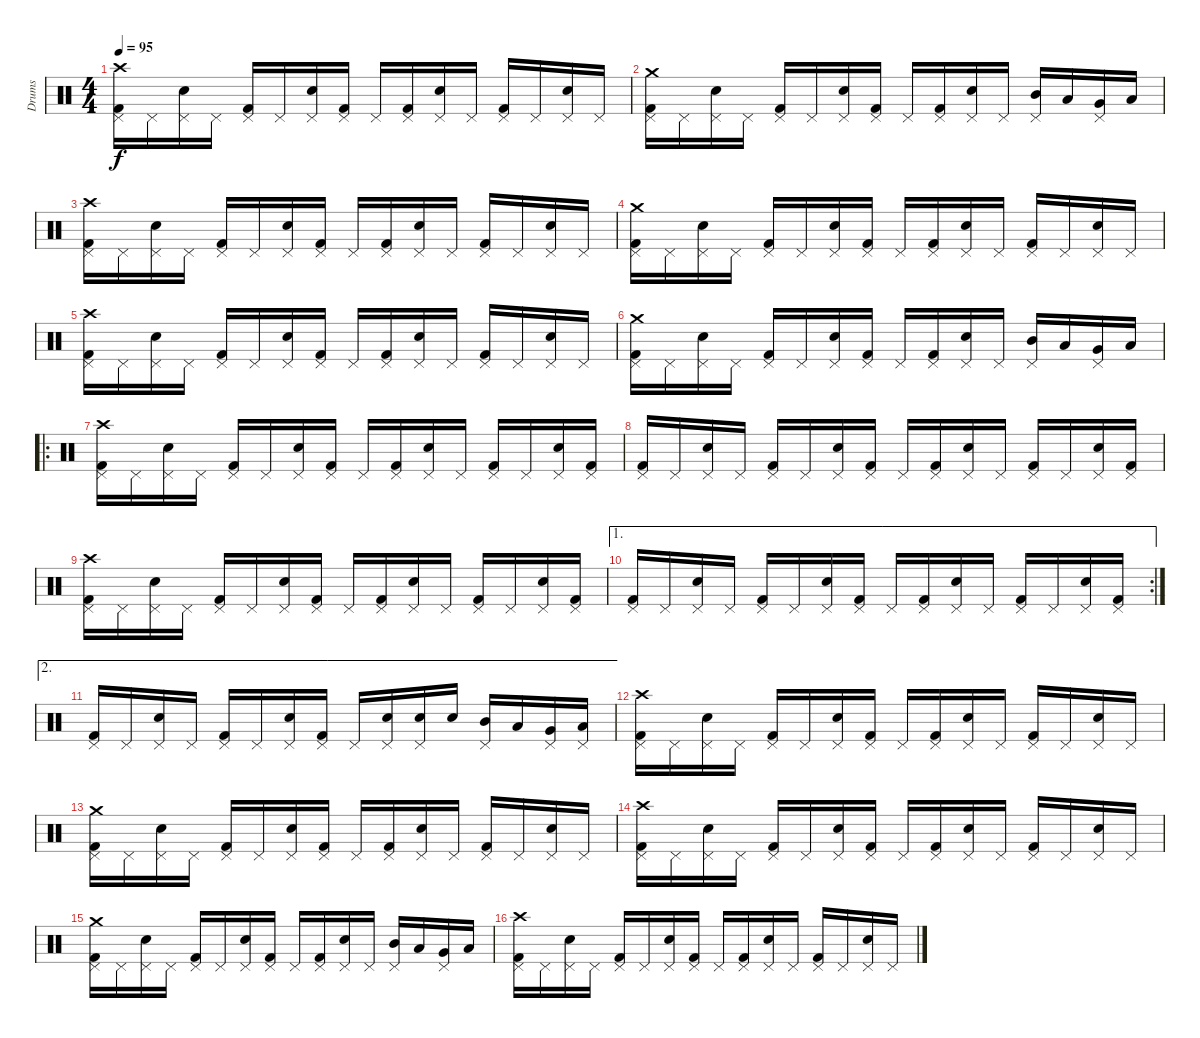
\track ("Drums" "Drums") {instrument percussion}
\staff {score}
\articulation defaults
\ts (4 4)
\tempo 95
\clef neutral
\ks c
("Kick (hit) 2" "Pedal Hi-Hat (hit)" "Crash high (hit)").16{dy f} "Pedal Hi-Hat (hit)".16 ("Snare (hit) 2" "Pedal Hi-Hat (hit)").16 "Pedal Hi-Hat (hit)".16 ("Kick (hit) 2" "Pedal Hi-Hat (hit)").16 "Pedal Hi-Hat (hit)".16 ("Snare (hit) 2" "Pedal Hi-Hat (hit)").16 ("Kick (hit) 2" "Pedal Hi-Hat (hit)").16 "Pedal Hi-Hat (hit)".16 ("Kick (hit) 2" "Pedal Hi-Hat (hit)").16 ("Snare (hit) 2" "Pedal Hi-Hat (hit)").16 "Pedal Hi-Hat (hit)".16 ("Kick (hit) 2" "Pedal Hi-Hat (hit)").16 "Pedal Hi-Hat (hit)".16 ("Snare (hit) 2" "Pedal Hi-Hat (hit)").16 "Pedal Hi-Hat (hit)".16 |
("Kick (hit) 2" "Pedal Hi-Hat (hit)" "Crash medium (hit)").16 "Pedal Hi-Hat (hit)".16 ("Snare (hit) 2" "Pedal Hi-Hat (hit)").16 "Pedal Hi-Hat (hit)".16 ("Kick (hit) 2" "Pedal Hi-Hat (hit)").16 "Pedal Hi-Hat (hit)".16 ("Snare (hit) 2" "Pedal Hi-Hat (hit)").16 ("Kick (hit) 2" "Pedal Hi-Hat (hit)").16 "Pedal Hi-Hat (hit)".16 ("Kick (hit) 2" "Pedal Hi-Hat (hit)").16 ("Snare (hit) 2" "Pedal Hi-Hat (hit)").16 "Pedal Hi-Hat (hit)".16 ("Mid Tom (hit)" "Pedal Hi-Hat (hit)").16 "Low Tom (hit)".16 ("Very Low Tom (hit)" "Pedal Hi-Hat (hit)").16 "Low Floor Tom (hit)".16 |
("Kick (hit) 2" "Pedal Hi-Hat (hit)" "Crash high (hit)").16 "Pedal Hi-Hat (hit)".16 ("Snare (hit) 2" "Pedal Hi-Hat (hit)").16 "Pedal Hi-Hat (hit)".16 ("Kick (hit) 2" "Pedal Hi-Hat (hit)").16 "Pedal Hi-Hat (hit)".16 ("Snare (hit) 2" "Pedal Hi-Hat (hit)").16 ("Kick (hit) 2" "Pedal Hi-Hat (hit)").16 "Pedal Hi-Hat (hit)".16 ("Kick (hit) 2" "Pedal Hi-Hat (hit)").16 ("Snare (hit) 2" "Pedal Hi-Hat (hit)").16 "Pedal Hi-Hat (hit)".16 ("Kick (hit) 2" "Pedal Hi-Hat (hit)").16 "Pedal Hi-Hat (hit)".16 ("Snare (hit) 2" "Pedal Hi-Hat (hit)").16 "Pedal Hi-Hat (hit)".16 |
("Kick (hit) 2" "Pedal Hi-Hat (hit)" "Crash medium (hit)").16 "Pedal Hi-Hat (hit)".16 ("Snare (hit) 2" "Pedal Hi-Hat (hit)").16 "Pedal Hi-Hat (hit)".16 ("Kick (hit) 2" "Pedal Hi-Hat (hit)").16 "Pedal Hi-Hat (hit)".16 ("Snare (hit) 2" "Pedal Hi-Hat (hit)").16 ("Kick (hit) 2" "Pedal Hi-Hat (hit)").16 "Pedal Hi-Hat (hit)".16 ("Kick (hit) 2" "Pedal Hi-Hat (hit)").16 ("Snare (hit) 2" "Pedal Hi-Hat (hit)").16 "Pedal Hi-Hat (hit)".16 ("Kick (hit) 2" "Pedal Hi-Hat (hit)").16 "Pedal Hi-Hat (hit)".16 ("Snare (hit) 2" "Pedal Hi-Hat (hit)").16 "Pedal Hi-Hat (hit)".16 |
("Kick (hit) 2" "Pedal Hi-Hat (hit)" "Crash high (hit)").16 "Pedal Hi-Hat (hit)".16 ("Snare (hit) 2" "Pedal Hi-Hat (hit)").16 "Pedal Hi-Hat (hit)".16 ("Kick (hit) 2" "Pedal Hi-Hat (hit)").16 "Pedal Hi-Hat (hit)".16 ("Snare (hit) 2" "Pedal Hi-Hat (hit)").16 ("Kick (hit) 2" "Pedal Hi-Hat (hit)").16 "Pedal Hi-Hat (hit)".16 ("Kick (hit) 2" "Pedal Hi-Hat (hit)").16 ("Snare (hit) 2" "Pedal Hi-Hat (hit)").16 "Pedal Hi-Hat (hit)".16 ("Kick (hit) 2" "Pedal Hi-Hat (hit)").16 "Pedal Hi-Hat (hit)".16 ("Snare (hit) 2" "Pedal Hi-Hat (hit)").16 "Pedal Hi-Hat (hit)".16 |
("Kick (hit) 2" "Pedal Hi-Hat (hit)" "Crash medium (hit)").16 "Pedal Hi-Hat (hit)".16 ("Snare (hit) 2" "Pedal Hi-Hat (hit)").16 "Pedal Hi-Hat (hit)".16 ("Kick (hit) 2" "Pedal Hi-Hat (hit)").16 "Pedal Hi-Hat (hit)".16 ("Snare (hit) 2" "Pedal Hi-Hat (hit)").16 ("Kick (hit) 2" "Pedal Hi-Hat (hit)").16 "Pedal Hi-Hat (hit)".16 ("Kick (hit) 2" "Pedal Hi-Hat (hit)").16 ("Snare (hit) 2" "Pedal Hi-Hat (hit)").16 "Pedal Hi-Hat (hit)".16 ("Mid Tom (hit)" "Pedal Hi-Hat (hit)").16 "Low Tom (hit)".16 ("Very Low Tom (hit)" "Pedal Hi-Hat (hit)").16 "Low Floor Tom (hit)".16 |
\ro
("Kick (hit) 2" "Pedal Hi-Hat (hit)" "Crash high (hit)").16 "Pedal Hi-Hat (hit)".16 ("Snare (hit) 2" "Pedal Hi-Hat (hit)").16 "Pedal Hi-Hat (hit)".16 ("Kick (hit) 2" "Pedal Hi-Hat (hit)").16 "Pedal Hi-Hat (hit)".16 ("Snare (hit) 2" "Pedal Hi-Hat (hit)").16 ("Kick (hit) 2" "Pedal Hi-Hat (hit)").16 "Pedal Hi-Hat (hit)".16 ("Kick (hit) 2" "Pedal Hi-Hat (hit)").16 ("Snare (hit) 2" "Pedal Hi-Hat (hit)").16 "Pedal Hi-Hat (hit)".16 ("Kick (hit) 2" "Pedal Hi-Hat (hit)").16 "Pedal Hi-Hat (hit)".16 ("Snare (hit) 2" "Pedal Hi-Hat (hit)").16 ("Kick (hit) 2" "Pedal Hi-Hat (hit)").16 |
("Kick (hit) 2" "Pedal Hi-Hat (hit)").16 "Pedal Hi-Hat (hit)".16 ("Snare (hit) 2" "Pedal Hi-Hat (hit)").16 "Pedal Hi-Hat (hit)".16 ("Kick (hit) 2" "Pedal Hi-Hat (hit)").16 "Pedal Hi-Hat (hit)".16 ("Snare (hit) 2" "Pedal Hi-Hat (hit)").16 ("Kick (hit) 2" "Pedal Hi-Hat (hit)").16 "Pedal Hi-Hat (hit)".16 ("Kick (hit) 2" "Pedal Hi-Hat (hit)").16 ("Snare (hit) 2" "Pedal Hi-Hat (hit)").16 "Pedal Hi-Hat (hit)".16 ("Kick (hit) 2" "Pedal Hi-Hat (hit)").16 "Pedal Hi-Hat (hit)".16 ("Snare (hit) 2" "Pedal Hi-Hat (hit)").16 ("Kick (hit) 2" "Pedal Hi-Hat (hit)").16 |
("Kick (hit) 2" "Pedal Hi-Hat (hit)" "Crash high (hit)").16 "Pedal Hi-Hat (hit)".16 ("Snare (hit) 2" "Pedal Hi-Hat (hit)").16 "Pedal Hi-Hat (hit)".16 ("Kick (hit) 2" "Pedal Hi-Hat (hit)").16 "Pedal Hi-Hat (hit)".16 ("Snare (hit) 2" "Pedal Hi-Hat (hit)").16 ("Kick (hit) 2" "Pedal Hi-Hat (hit)").16 "Pedal Hi-Hat (hit)".16 ("Kick (hit) 2" "Pedal Hi-Hat (hit)").16 ("Snare (hit) 2" "Pedal Hi-Hat (hit)").16 "Pedal Hi-Hat (hit)".16 ("Kick (hit) 2" "Pedal Hi-Hat (hit)").16 "Pedal Hi-Hat (hit)".16 ("Snare (hit) 2" "Pedal Hi-Hat (hit)").16 ("Kick (hit) 2" "Pedal Hi-Hat (hit)").16 |
\ae 1
\rc 2
("Kick (hit) 2" "Pedal Hi-Hat (hit)").16 "Pedal Hi-Hat (hit)".16 ("Snare (hit) 2" "Pedal Hi-Hat (hit)").16 "Pedal Hi-Hat (hit)".16 ("Kick (hit) 2" "Pedal Hi-Hat (hit)").16 "Pedal Hi-Hat (hit)".16 ("Snare (hit) 2" "Pedal Hi-Hat (hit)").16 ("Kick (hit) 2" "Pedal Hi-Hat (hit)").16 "Pedal Hi-Hat (hit)".16 ("Kick (hit) 2" "Pedal Hi-Hat (hit)").16 ("Snare (hit) 2" "Pedal Hi-Hat (hit)").16 "Pedal Hi-Hat (hit)".16 ("Kick (hit) 2" "Pedal Hi-Hat (hit)").16 "Pedal Hi-Hat (hit)".16 ("Snare (hit) 2" "Pedal Hi-Hat (hit)").16 ("Kick (hit) 2" "Pedal Hi-Hat (hit)").16 |
\ae 2
("Kick (hit) 2" "Pedal Hi-Hat (hit)").16 "Pedal Hi-Hat (hit)".16 ("Snare (hit) 2" "Pedal Hi-Hat (hit)").16 "Pedal Hi-Hat (hit)".16 ("Kick (hit) 2" "Pedal Hi-Hat (hit)").16 "Pedal Hi-Hat (hit)".16 ("Snare (hit) 2" "Pedal Hi-Hat (hit)").16 ("Kick (hit) 2" "Pedal Hi-Hat (hit)").16 "Pedal Hi-Hat (hit)".16 ("Snare (hit) 2" "Pedal Hi-Hat (hit)").16 ("Snare (hit) 2" "Pedal Hi-Hat (hit)").16 "Snare (hit) 2".16 ("Mid Tom (hit)" "Pedal Hi-Hat (hit)").16 "Low Tom (hit)".16 ("Very Low Tom (hit)" "Pedal Hi-Hat (hit)").16 ("Low Floor Tom (hit)" "Pedal Hi-Hat (hit)").16 |
("Kick (hit) 2" "Pedal Hi-Hat (hit)" "Crash high (hit)").16 "Pedal Hi-Hat (hit)".16 ("Snare (hit) 2" "Pedal Hi-Hat (hit)").16 "Pedal Hi-Hat (hit)".16 ("Kick (hit) 2" "Pedal Hi-Hat (hit)").16 "Pedal Hi-Hat (hit)".16 ("Snare (hit) 2" "Pedal Hi-Hat (hit)").16 ("Kick (hit) 2" "Pedal Hi-Hat (hit)").16 "Pedal Hi-Hat (hit)".16 ("Kick (hit) 2" "Pedal Hi-Hat (hit)").16 ("Snare (hit) 2" "Pedal Hi-Hat (hit)").16 "Pedal Hi-Hat (hit)".16 ("Kick (hit) 2" "Pedal Hi-Hat (hit)").16 "Pedal Hi-Hat (hit)".16 ("Snare (hit) 2" "Pedal Hi-Hat (hit)").16 "Pedal Hi-Hat (hit)".16 |
("Kick (hit) 2" "Pedal Hi-Hat (hit)" "Crash medium (hit)").16 "Pedal Hi-Hat (hit)".16 ("Snare (hit) 2" "Pedal Hi-Hat (hit)").16 "Pedal Hi-Hat (hit)".16 ("Kick (hit) 2" "Pedal Hi-Hat (hit)").16 "Pedal Hi-Hat (hit)".16 ("Snare (hit) 2" "Pedal Hi-Hat (hit)").16 ("Kick (hit) 2" "Pedal Hi-Hat (hit)").16 "Pedal Hi-Hat (hit)".16 ("Kick (hit) 2" "Pedal Hi-Hat (hit)").16 ("Snare (hit) 2" "Pedal Hi-Hat (hit)").16 "Pedal Hi-Hat (hit)".16 ("Kick (hit) 2" "Pedal Hi-Hat (hit)").16 "Pedal Hi-Hat (hit)".16 ("Snare (hit) 2" "Pedal Hi-Hat (hit)").16 "Pedal Hi-Hat (hit)".16 |
("Kick (hit) 2" "Pedal Hi-Hat (hit)" "Crash high (hit)").16 "Pedal Hi-Hat (hit)".16 ("Snare (hit) 2" "Pedal Hi-Hat (hit)").16 "Pedal Hi-Hat (hit)".16 ("Kick (hit) 2" "Pedal Hi-Hat (hit)").16 "Pedal Hi-Hat (hit)".16 ("Snare (hit) 2" "Pedal Hi-Hat (hit)").16 ("Kick (hit) 2" "Pedal Hi-Hat (hit)").16 "Pedal Hi-Hat (hit)".16 ("Kick (hit) 2" "Pedal Hi-Hat (hit)").16 ("Snare (hit) 2" "Pedal Hi-Hat (hit)").16 "Pedal Hi-Hat (hit)".16 ("Kick (hit) 2" "Pedal Hi-Hat (hit)").16 "Pedal Hi-Hat (hit)".16 ("Snare (hit) 2" "Pedal Hi-Hat (hit)").16 "Pedal Hi-Hat (hit)".16 |
("Kick (hit) 2" "Pedal Hi-Hat (hit)" "Crash medium (hit)").16 "Pedal Hi-Hat (hit)".16 ("Snare (hit) 2" "Pedal Hi-Hat (hit)").16 "Pedal Hi-Hat (hit)".16 ("Kick (hit) 2" "Pedal Hi-Hat (hit)").16 "Pedal Hi-Hat (hit)".16 ("Snare (hit) 2" "Pedal Hi-Hat (hit)").16 ("Kick (hit) 2" "Pedal Hi-Hat (hit)").16 "Pedal Hi-Hat (hit)".16 ("Kick (hit) 2" "Pedal Hi-Hat (hit)").16 ("Snare (hit) 2" "Pedal Hi-Hat (hit)").16 "Pedal Hi-Hat (hit)".16 ("Mid Tom (hit)" "Pedal Hi-Hat (hit)").16 "Low Tom (hit)".16 ("Very Low Tom (hit)" "Pedal Hi-Hat (hit)").16 "Low Floor Tom (hit)".16 |
("Kick (hit) 2" "Pedal Hi-Hat (hit)" "Crash high (hit)").16 "Pedal Hi-Hat (hit)".16 ("Snare (hit) 2" "Pedal Hi-Hat (hit)").16 "Pedal Hi-Hat (hit)".16 ("Kick (hit) 2" "Pedal Hi-Hat (hit)").16 "Pedal Hi-Hat (hit)".16 ("Snare (hit) 2" "Pedal Hi-Hat (hit)").16 ("Kick (hit) 2" "Pedal Hi-Hat (hit)").16 "Pedal Hi-Hat (hit)".16 ("Kick (hit) 2" "Pedal Hi-Hat (hit)").16 ("Snare (hit) 2" "Pedal Hi-Hat (hit)").16 "Pedal Hi-Hat (hit)".16 ("Kick (hit) 2" "Pedal Hi-Hat (hit)").16 "Pedal Hi-Hat (hit)".16 ("Snare (hit) 2" "Pedal Hi-Hat (hit)").16 "Pedal Hi-Hat (hit)".16
